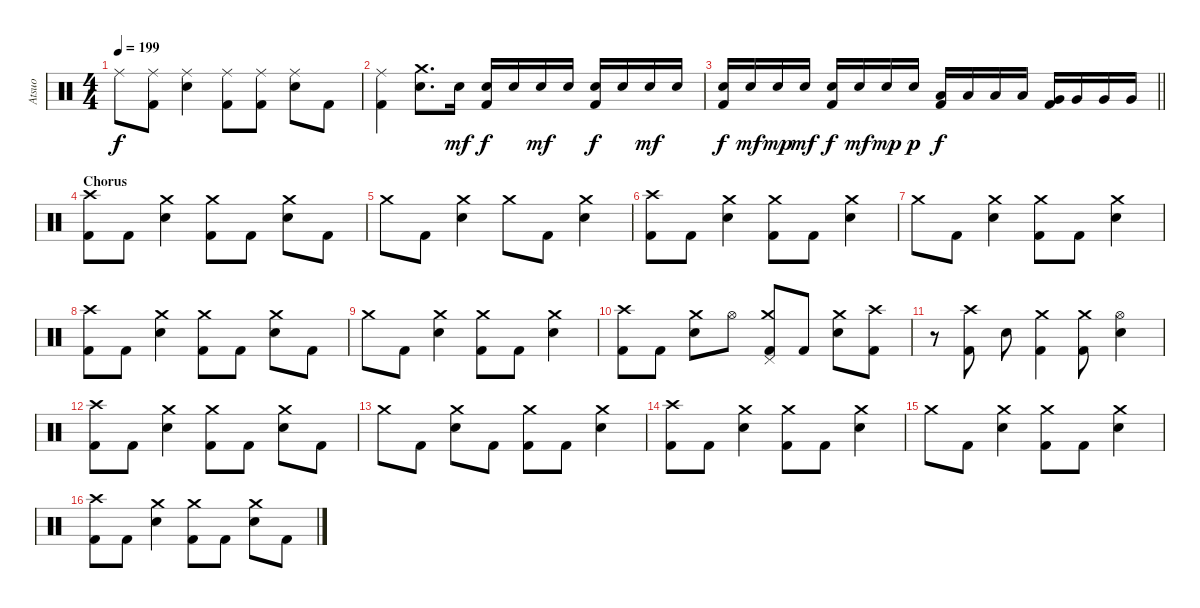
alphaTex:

\track ("Atsuo" "Atsuo") {instrument percussion}
\staff {score}
\articulation defaults
\ts (4 4)
\tempo 199
\clef neutral
\ks c "Ride (middle)".8{dy f}
("Ride (middle)" "Kick (hit) 2").8 ("Ride (middle)" "Electric Snare (hit)").4 ("Ride (middle)" "Kick (hit) 2").8 ("Ride (middle)" "Kick (hit) 2").8 ("Ride (middle)" "Electric Snare (hit)").8 "Kick (hit) 2".8 |
("Ride (middle)" "Kick (hit) 2").4 ("Crash medium (hit)" "Electric Snare (hit)").8{d} "Electric Snare (hit)".16{dy mf} ("Electric Snare (hit)" "Kick (hit) 2").16{dy f} "Electric Snare (hit)".16 "Electric Snare (hit)".16{dy mf} "Electric Snare (hit)".16 ("Electric Snare (hit)" "Kick (hit) 2").16{dy f} "Electric Snare (hit)".16 "Electric Snare (hit)".16{dy mf} "Electric Snare (hit)".16 |
\barLineRight lightlight
("Electric Snare (hit)" "Kick (hit) 2").16{dy f} "Electric Snare (hit)".16{dy mf} "Electric Snare (hit)".16{dy mp} "Electric Snare (hit)".16{dy mf} ("Electric Snare (hit)" "Kick (hit) 2").16{dy f} "Electric Snare (hit)".16{dy mf} "Electric Snare (hit)".16{dy mp} "Electric Snare (hit)".16{dy p} ("Low Tom (hit)" "Kick (hit) 2").16{dy f} "Low Tom (hit)".16 "Low Tom (hit)".16 "Low Tom (hit)".16 ("Very Low Tom (hit)" "Kick (hit) 2").16 "Very Low Tom (hit)".16 "Very Low Tom (hit)".16 "Very Low Tom (hit)".16 |
\section ("" "Chorus")
("Crash high (hit)" "Kick (hit) 2").8 "Kick (hit) 2".8 ("Crash medium (hit)" "Electric Snare (hit)").4 ("Crash medium (hit)" "Kick (hit) 2").8 "Kick (hit) 2".8 ("Crash medium (hit)" "Electric Snare (hit)").8 "Kick (hit) 2".8 |
"Crash medium (hit)".8 "Kick (hit) 2".8 ("Crash medium (hit)" "Electric Snare (hit)").4 "Crash medium (hit)".8 "Kick (hit) 2".8 ("Crash medium (hit)" "Electric Snare (hit)").4 |
("Crash high (hit)" "Kick (hit) 2").8 "Kick (hit) 2".8 ("Crash medium (hit)" "Electric Snare (hit)").4 ("Crash medium (hit)" "Kick (hit) 2").8 "Kick (hit) 2".8 ("Crash medium (hit)" "Electric Snare (hit)").4 |
"Crash medium (hit)".8 "Kick (hit) 2".8 ("Crash medium (hit)" "Electric Snare (hit)").4 ("Crash medium (hit)" "Kick (hit) 2").8 "Kick (hit) 2".8 ("Crash medium (hit)" "Electric Snare (hit)").4 |
("Crash high (hit)" "Kick (hit) 2").8 "Kick (hit) 2".8 ("Crash medium (hit)" "Electric Snare (hit)").4 ("Crash medium (hit)" "Kick (hit) 2").8 "Kick (hit) 2".8 ("Crash medium (hit)" "Electric Snare (hit)").8 "Kick (hit) 2".8 |
"Crash medium (hit)".8 "Kick (hit) 2".8 ("Crash medium (hit)" "Electric Snare (hit)").4 ("Crash medium (hit)" "Kick (hit) 2").8 "Kick (hit) 2".8 ("Crash medium (hit)" "Electric Snare (hit)").4 |
("Crash high (hit)" "Kick (hit) 2").8 "Kick (hit) 2".8 ("Crash medium (hit)" "Electric Snare (hit)").8 "Hi-Hat (open)".8 ("Pedal Hi-Hat (hit)" "Crash medium (hit)" "Kick (hit) 2").8 "Kick (hit) 2".8 ("Crash medium (hit)" "Electric Snare (hit)").8 ("Crash high (hit)" "Kick (hit) 2").8 |
r.8 ("Crash high (hit)" "Kick (hit) 2").8 "Electric Snare (hit)".8 ("Crash medium (hit)" "Kick (hit) 2").4 ("Crash medium (hit)" "Kick (hit) 2").8 ("Hi-Hat (open)" "Electric Snare (hit)").4 |
("Crash high (hit)" "Kick (hit) 2").8 "Kick (hit) 2".8 ("Crash medium (hit)" "Electric Snare (hit)").4 ("Crash medium (hit)" "Kick (hit) 2").8 "Kick (hit) 2".8 ("Crash medium (hit)" "Electric Snare (hit)").8 "Kick (hit) 2".8 |
"Crash medium (hit)".8 "Kick (hit) 2".8 ("Crash medium (hit)" "Electric Snare (hit)").8 "Kick (hit) 2".8 ("Crash medium (hit)" "Kick (hit) 2").8 "Kick (hit) 2".8 ("Crash medium (hit)" "Electric Snare (hit)").4 |
("Crash high (hit)" "Kick (hit) 2").8 "Kick (hit) 2".8 ("Crash medium (hit)" "Electric Snare (hit)").4 ("Crash medium (hit)" "Kick (hit) 2").8 "Kick (hit) 2".8 ("Crash medium (hit)" "Electric Snare (hit)").4 |
"Crash medium (hit)".8 "Kick (hit) 2".8 ("Crash medium (hit)" "Electric Snare (hit)").4 ("Crash medium (hit)" "Kick (hit) 2").8 "Kick (hit) 2".8 ("Crash medium (hit)" "Electric Snare (hit)").4 |
("Crash high (hit)" "Kick (hit) 2").8 "Kick (hit) 2".8 ("Crash medium (hit)" "Electric Snare (hit)").4 ("Crash medium (hit)" "Kick (hit) 2").8 "Kick (hit) 2".8 ("Crash medium (hit)" "Electric Snare (hit)").8 "Kick (hit) 2".8
